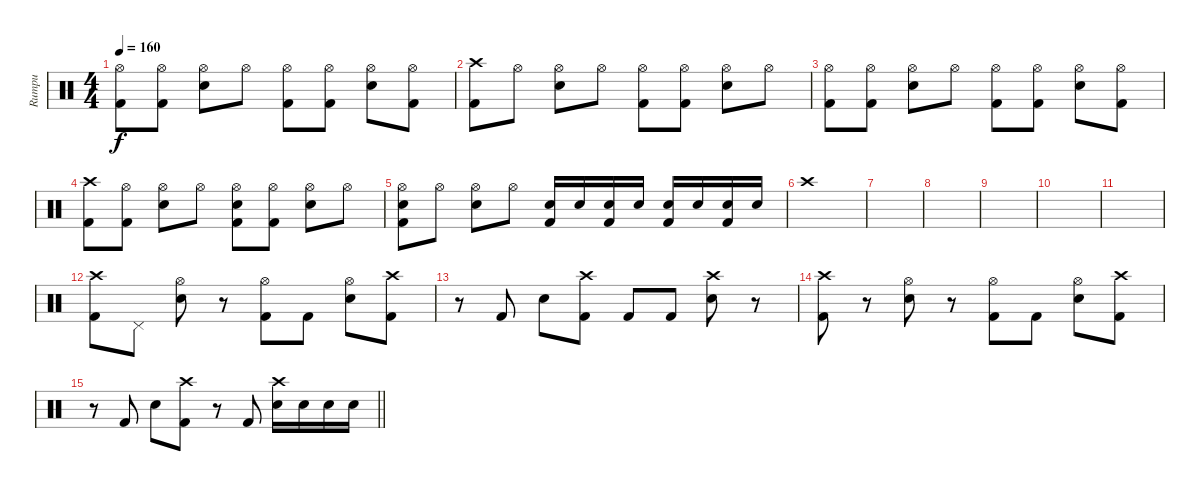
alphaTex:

\track ("Rumpu" "Rumpu") {instrument percussion}
\staff {score}
\articulation defaults
\ts (4 4)
\tempo 160
\clef neutral
\ks c
("Hi-Hat (open)" "Kick (hit) 2").8{dy f} ("Hi-Hat (open)" "Kick (hit) 2").8 ("Hi-Hat (open)" "Snare (hit) 2").8 "Hi-Hat (open)".8 ("Hi-Hat (open)" "Kick (hit) 2").8 ("Hi-Hat (open)" "Kick (hit) 2").8 ("Hi-Hat (open)" "Snare (hit) 2").8 ("Hi-Hat (open)" "Kick (hit) 2").8 |
("Crash high (hit)" "Kick (hit) 2").8 "Hi-Hat (open)".8 ("Hi-Hat (open)" "Snare (hit) 2").8 "Hi-Hat (open)".8 ("Hi-Hat (open)" "Kick (hit) 2").8 ("Hi-Hat (open)" "Kick (hit) 2").8 ("Hi-Hat (open)" "Snare (hit) 2").8 "Hi-Hat (open)".8 |
("Hi-Hat (open)" "Kick (hit) 2").8 ("Hi-Hat (open)" "Kick (hit) 2").8 ("Hi-Hat (open)" "Snare (hit) 2").8 "Hi-Hat (open)".8 ("Hi-Hat (open)" "Kick (hit) 2").8 ("Hi-Hat (open)" "Kick (hit) 2").8 ("Hi-Hat (open)" "Snare (hit) 2").8 ("Hi-Hat (open)" "Kick (hit) 2").8 |
("Crash high (hit)" "Kick (hit) 2").8 ("Hi-Hat (open)" "Kick (hit) 2").8 ("Hi-Hat (open)" "Snare (hit) 2").8 "Hi-Hat (open)".8 ("Hi-Hat (open)" "Snare (hit) 2" "Kick (hit) 2").8 ("Hi-Hat (open)" "Kick (hit) 2").8 ("Hi-Hat (open)" "Snare (hit) 2").8 "Hi-Hat (open)".8 |
("Hi-Hat (open)" "Snare (hit) 2" "Kick (hit) 2").8 "Hi-Hat (open)".8 ("Hi-Hat (open)" "Snare (hit) 2").8 "Hi-Hat (open)".8 ("Snare (hit) 2" "Kick (hit) 2").16 "Snare (hit) 2".16 ("Snare (hit) 2" "Kick (hit) 2").16 "Snare (hit) 2".16 ("Snare (hit) 2" "Kick (hit) 2").16 "Snare (hit) 2".16 ("Snare (hit) 2" "Kick (hit) 2").16 "Snare (hit) 2".16 |
"Crash high (hit)".1 |
|
|
|
|
|
("Crash high (hit)" "Kick (hit) 2").8 "Pedal Hi-Hat (hit)".8 ("Hi-Hat (open)" "Snare (hit) 2").8 r.8 ("Hi-Hat (open)" "Kick (hit) 2").8 "Kick (hit) 2".8 ("Hi-Hat (open)" "Snare (hit) 2").8 ("Crash high (hit)" "Kick (hit) 2").8 |
r.8 "Kick (hit) 2".8 "Snare (hit) 2".8 ("Crash high (hit)" "Kick (hit) 2").8 "Kick (hit) 2".8 "Kick (hit) 2".8 ("Crash high (hit)" "Snare (hit) 2").8 r.8 |
("Crash high (hit)" "Kick (hit) 2").8 r.8 ("Hi-Hat (open)" "Snare (hit) 2").8 r.8 ("Hi-Hat (open)" "Kick (hit) 2").8 "Kick (hit) 2".8 ("Hi-Hat (open)" "Snare (hit) 2").8 ("Crash high (hit)" "Kick (hit) 2").8 |
\barLineRight lightlight
r.8 "Kick (hit) 2".8 "Snare (hit) 2".8 ("Crash high (hit)" "Kick (hit) 2").8 r.8 "Kick (hit) 2".8 ("Crash high (hit)" "Snare (hit) 2").16 "Snare (hit) 2".16 "Snare (hit) 2".16 "Snare (hit) 2".16
